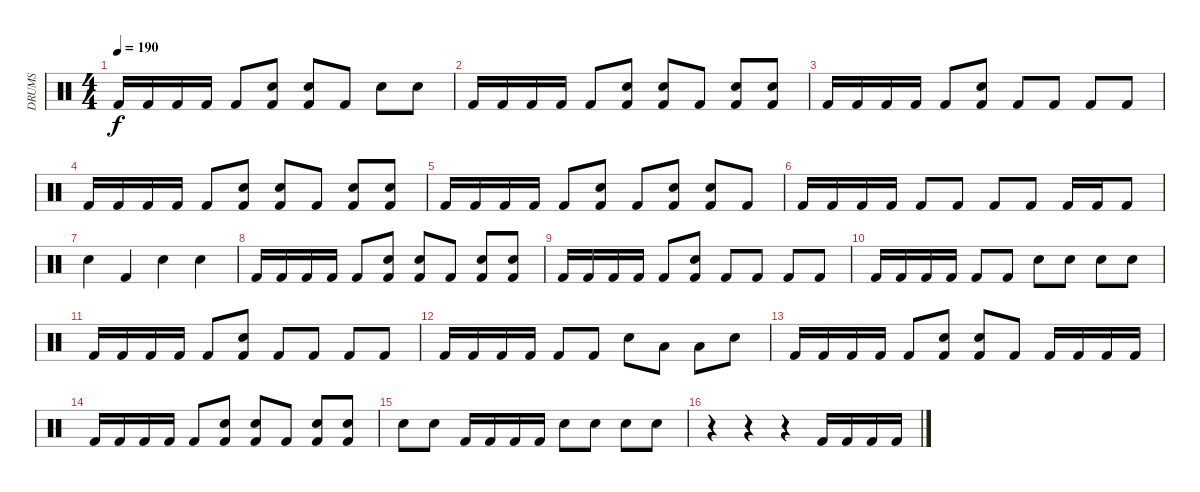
\track ("DRUMS" "DRUMS") {instrument percussion}
\staff {score}
\articulation defaults
\ts (4 4)
\tempo 190
\clef neutral
\ks c "Kick (hit) 2".16{dy f} "Kick (hit) 2".16 "Kick (hit) 2".16 "Kick (hit) 2".16 "Kick (hit) 2".8
("Electric Snare (hit)" "Kick (hit) 2").8 ("Electric Snare (hit)" "Kick (hit) 2").8 "Kick (hit) 2".8 "Electric Snare (hit)".8 "Electric Snare (hit)".8 |
"Kick (hit) 2".16 "Kick (hit) 2".16 "Kick (hit) 2".16 "Kick (hit) 2".16 "Kick (hit) 2".8 ("Electric Snare (hit)" "Kick (hit) 2").8 ("Electric Snare (hit)" "Kick (hit) 2").8 "Kick (hit) 2".8 ("Electric Snare (hit)" "Kick (hit) 2").8 ("Electric Snare (hit)" "Kick (hit) 2").8 |
"Kick (hit) 2".16 "Kick (hit) 2".16 "Kick (hit) 2".16 "Kick (hit) 2".16 "Kick (hit) 2".8 ("Electric Snare (hit)" "Kick (hit) 2").8 "Kick (hit) 2".8 "Kick (hit) 2".8 "Kick (hit) 2".8 "Kick (hit) 2".8 |
"Kick (hit) 2".16 "Kick (hit) 2".16 "Kick (hit) 2".16 "Kick (hit) 2".16 "Kick (hit) 2".8 ("Electric Snare (hit)" "Kick (hit) 2").8 ("Electric Snare (hit)" "Kick (hit) 2").8 "Kick (hit) 2".8 ("Electric Snare (hit)" "Kick (hit) 2").8 ("Electric Snare (hit)" "Kick (hit) 2").8 |
"Kick (hit) 2".16 "Kick (hit) 2".16 "Kick (hit) 2".16 "Kick (hit) 2".16 "Kick (hit) 2".8 ("Electric Snare (hit)" "Kick (hit) 2").8 "Kick (hit) 2".8 ("Electric Snare (hit)" "Kick (hit) 2").8 ("Electric Snare (hit)" "Kick (hit) 2").8 "Kick (hit) 2".8 |
"Kick (hit) 2".16 "Kick (hit) 2".16 "Kick (hit) 2".16 "Kick (hit) 2".16 "Kick (hit) 2".8 "Kick (hit) 2".8 "Kick (hit) 2".8 "Kick (hit) 2".8 "Kick (hit) 2".16 "Kick (hit) 2".16 "Kick (hit) 2".8 |
"Electric Snare (hit)".4 "Kick (hit) 2".4 "Electric Snare (hit)".4 "Electric Snare (hit)".4 |
"Kick (hit) 2".16 "Kick (hit) 2".16 "Kick (hit) 2".16 "Kick (hit) 2".16 "Kick (hit) 2".8 ("Electric Snare (hit)" "Kick (hit) 2").8 ("Electric Snare (hit)" "Kick (hit) 2").8 "Kick (hit) 2".8 ("Electric Snare (hit)" "Kick (hit) 2").8 ("Electric Snare (hit)" "Kick (hit) 2").8 |
"Kick (hit) 2".16 "Kick (hit) 2".16 "Kick (hit) 2".16 "Kick (hit) 2".16 "Kick (hit) 2".8 ("Electric Snare (hit)" "Kick (hit) 2").8 "Kick (hit) 2".8 "Kick (hit) 2".8 "Kick (hit) 2".8 "Kick (hit) 2".8 |
"Kick (hit) 2".16 "Kick (hit) 2".16 "Kick (hit) 2".16 "Kick (hit) 2".16 "Kick (hit) 2".8 "Kick (hit) 2".8 "Electric Snare (hit)".8 "Electric Snare (hit)".8 "Electric Snare (hit)".8 "Electric Snare (hit)".8 |
"Kick (hit) 2".16 "Kick (hit) 2".16 "Kick (hit) 2".16 "Kick (hit) 2".16 "Kick (hit) 2".8 ("Electric Snare (hit)" "Kick (hit) 2").8 "Kick (hit) 2".8 "Kick (hit) 2".8 "Kick (hit) 2".8 "Kick (hit) 2".8 |
"Kick (hit) 2".16 "Kick (hit) 2".16 "Kick (hit) 2".16 "Kick (hit) 2".16 "Kick (hit) 2".8 "Kick (hit) 2".8 "Electric Snare (hit)".8 "Low Tom (hit)".8 "Low Tom (hit)".8 "Electric Snare (hit)".8 |
"Kick (hit) 2".16 "Kick (hit) 2".16 "Kick (hit) 2".16 "Kick (hit) 2".16 "Kick (hit) 2".8 ("Electric Snare (hit)" "Kick (hit) 2").8 ("Electric Snare (hit)" "Kick (hit) 2").8 "Kick (hit) 2".8 "Kick (hit) 2".16 "Kick (hit) 2".16 "Kick (hit) 2".16 "Kick (hit) 2".16 |
"Kick (hit) 2".16 "Kick (hit) 2".16 "Kick (hit) 2".16 "Kick (hit) 2".16 "Kick (hit) 2".8 ("Electric Snare (hit)" "Kick (hit) 2").8 ("Electric Snare (hit)" "Kick (hit) 2").8 "Kick (hit) 2".8 ("Electric Snare (hit)" "Kick (hit) 2").8 ("Electric Snare (hit)" "Kick (hit) 2").8 |
"Electric Snare (hit)".8 "Electric Snare (hit)".8 "Kick (hit) 2".16 "Kick (hit) 2".16 "Kick (hit) 2".16 "Kick (hit) 2".16 "Electric Snare (hit)".8 "Electric Snare (hit)".8 "Electric Snare (hit)".8 "Electric Snare (hit)".8 |
r.4 r.4 r.4 "Kick (hit) 2".16 "Kick (hit) 2".16 "Kick (hit) 2".16 "Kick (hit) 2".16
